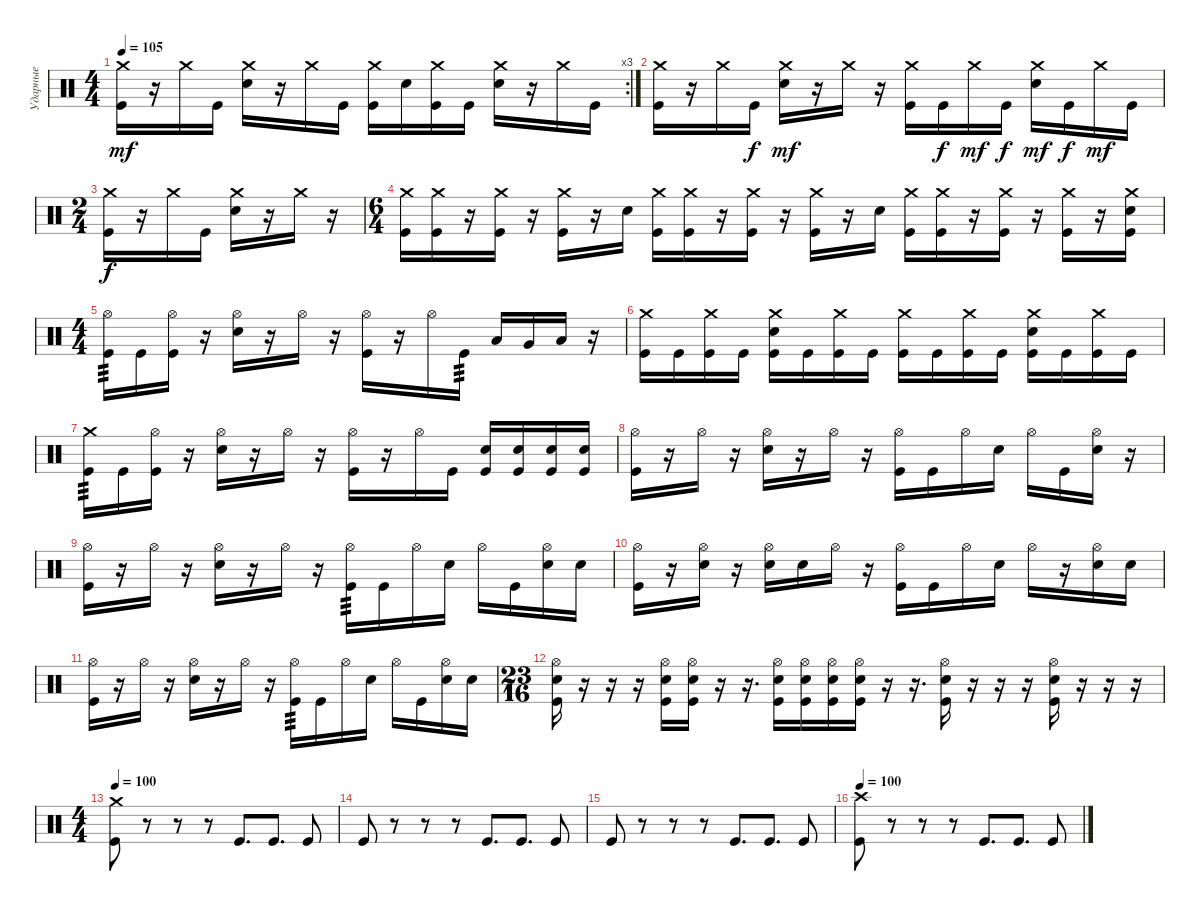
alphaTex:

\track ("Ударные" "Ударные") {instrument percussion}
\staff {score}
\articulation defaults
\rc 3
\ts (4 4)
\tempo 105
\clef neutral
\ks c
("Crash medium (hit)" "Kick (hit)").16{dy mf} r.16 "Crash medium (hit)".16 "Kick (hit)".16 ("Crash medium (hit)" "Electric Snare (hit)").16 r.16 "Crash medium (hit)".16 "Kick (hit)".16 ("Crash medium (hit)" "Kick (hit)").16 "Electric Snare (hit)".16 ("Crash medium (hit)" "Kick (hit)").16 "Kick (hit)".16 ("Crash medium (hit)" "Electric Snare (hit)").16 r.16 "Crash medium (hit)".16 "Kick (hit)".16 |
("Crash medium (hit)" "Kick (hit)").16 r.16 "Crash medium (hit)".16 "Kick (hit)".16{dy f} ("Crash medium (hit)" "Electric Snare (hit)").16{dy mf} r.16 "Crash medium (hit)".16 r.16 ("Crash medium (hit)" "Kick (hit)").16 "Kick (hit)".16{dy f} "Crash medium (hit)".16{dy mf} "Kick (hit)".16{dy f} ("Crash medium (hit)" "Electric Snare (hit)").16{dy mf} "Kick (hit)".16{dy f} "Crash medium (hit)".16{dy mf} "Kick (hit)".16 |
\ts (2 4)
("Crash medium (hit)" "Kick (hit)").16{dy f} r.16 "Crash medium (hit)".16 "Kick (hit)".16 ("Crash medium (hit)" "Electric Snare (hit)").16 r.16 "Crash medium (hit)".16 r.16 |
\ts (6 4)
("Crash medium (hit)" "Kick (hit)").16 ("Crash medium (hit)" "Kick (hit)").16 r.16 ("Crash medium (hit)" "Kick (hit)").16 r.16 ("Crash medium (hit)" "Kick (hit)").16 r.16 "Electric Snare (hit)".16 ("Crash medium (hit)" "Kick (hit)").16 ("Crash medium (hit)" "Kick (hit)").16 r.16 ("Crash medium (hit)" "Kick (hit)").16 r.16 ("Crash medium (hit)" "Kick (hit)").16 r.16 "Electric Snare (hit)".16 ("Crash medium (hit)" "Kick (hit)").16 ("Crash medium (hit)" "Kick (hit)").16 r.16 ("Crash medium (hit)" "Kick (hit)").16 r.16 ("Crash medium (hit)" "Kick (hit)").16 r.16 ("Crash medium (hit)" "Electric Snare (hit)" "Kick (hit)").16 |
\ts (4 4)
("Hi-Hat (open)" "Kick (hit)").16{tp 3} "Kick (hit)".16 ("Hi-Hat (open)" "Kick (hit)").16 r.16 ("Hi-Hat (open)" "Electric Snare (hit)").16 r.16 "Hi-Hat (open)".16 r.16 ("Hi-Hat (open)" "Kick (hit)").16 r.16 "Hi-Hat (open)".16 "Kick (hit)".16{tp 3} "Low Tom (hit)".16 "Very Low Tom (hit)".16 "Low Floor Tom (hit)".16 r.16 |
("Crash medium (hit)" "Kick (hit)").16 "Kick (hit)".16 ("Crash medium (hit)" "Kick (hit)").16 "Kick (hit)".16 ("Crash medium (hit)" "Electric Snare (hit)" "Kick (hit)").16 "Kick (hit)".16 ("Crash medium (hit)" "Kick (hit)").16 "Kick (hit)".16 ("Crash medium (hit)" "Kick (hit)").16 "Kick (hit)".16 ("Crash medium (hit)" "Kick (hit)").16 "Kick (hit)".16 ("Crash medium (hit)" "Electric Snare (hit)" "Kick (hit)").16 "Kick (hit)".16 ("Crash medium (hit)" "Kick (hit)").16 "Kick (hit)".16 |
("Crash medium (hit)" "Kick (hit)").16{tp 3} "Kick (hit)".16 ("Hi-Hat (open)" "Kick (hit)").16 r.16 ("Hi-Hat (open)" "Electric Snare (hit)").16 r.16 "Hi-Hat (open)".16 r.16 ("Hi-Hat (open)" "Kick (hit)").16 r.16 "Hi-Hat (open)".16 "Kick (hit)".16 ("Electric Snare (hit)" "Kick (hit)").16 ("Electric Snare (hit)" "Kick (hit)").16 ("Electric Snare (hit)" "Kick (hit)").16 ("Electric Snare (hit)" "Kick (hit)").16 |
("Hi-Hat (open)" "Kick (hit)").16 r.16 "Hi-Hat (open)".16 r.16 ("Hi-Hat (open)" "Electric Snare (hit)").16 r.16 "Hi-Hat (open)".16 r.16 ("Hi-Hat (open)" "Kick (hit)").16 "Kick (hit)".16 "Hi-Hat (open)".16 "Electric Snare (hit)".16 "Hi-Hat (open)".16 "Kick (hit)".16 ("Hi-Hat (open)" "Electric Snare (hit)").16 r.16 |
("Hi-Hat (open)" "Kick (hit)").16 r.16 "Hi-Hat (open)".16 r.16 ("Hi-Hat (open)" "Electric Snare (hit)").16 r.16 "Hi-Hat (open)".16 r.16 ("Hi-Hat (open)" "Kick (hit)").16{tp 3} "Kick (hit)".16 "Hi-Hat (open)".16 "Electric Snare (hit)".16 "Hi-Hat (open)".16 "Kick (hit)".16 ("Hi-Hat (open)" "Electric Snare (hit)").16 "Electric Snare (hit)".16 |
("Hi-Hat (open)" "Kick (hit)").16 r.16 ("Hi-Hat (open)" "Electric Snare (hit)").16 r.16 ("Hi-Hat (open)" "Electric Snare (hit)").16 "Electric Snare (hit)".16 "Hi-Hat (open)".16 r.16 ("Hi-Hat (open)" "Kick (hit)").16 "Kick (hit)".16 "Hi-Hat (open)".16 "Electric Snare (hit)".16 "Hi-Hat (open)".16 r.16 ("Hi-Hat (open)" "Electric Snare (hit)").16 "Electric Snare (hit)".16 |
("Hi-Hat (open)" "Kick (hit)").16 r.16 "Hi-Hat (open)".16 r.16 ("Hi-Hat (open)" "Electric Snare (hit)").16 r.16 "Hi-Hat (open)".16 r.16 ("Hi-Hat (open)" "Kick (hit)").16{tp 3} "Kick (hit)".16 "Hi-Hat (open)".16 "Electric Snare (hit)".16 "Hi-Hat (open)".16 "Kick (hit)".16 ("Hi-Hat (open)" "Electric Snare (hit)").16 "Electric Snare (hit)".16 |
\ts (23 16)
("Hi-Hat (open)" "Electric Snare (hit)" "Kick (hit)").16 r.16 r.16 r.16 ("Hi-Hat (open)" "Electric Snare (hit)" "Kick (hit)").16 ("Hi-Hat (open)" "Electric Snare (hit)" "Kick (hit)").16 r.16 r.16{d} ("Hi-Hat (open)" "Electric Snare (hit)" "Kick (hit)").16 ("Hi-Hat (open)" "Electric Snare (hit)" "Kick (hit)").16 ("Hi-Hat (open)" "Electric Snare (hit)" "Kick (hit)").16 ("Hi-Hat (open)" "Electric Snare (hit)" "Kick (hit)").16 r.16 r.16{d} ("Hi-Hat (open)" "Electric Snare (hit)" "Kick (hit)").16 r.16 r.16 r.16 ("Hi-Hat (open)" "Electric Snare (hit)" "Kick (hit)").16 r.16 r.16 r.16 |
\ts (4 4)
\tempo 100
("Crash medium (hit)" "Kick (hit)").8 r.8 r.8 r.8 "Kick (hit)".8{d} "Kick (hit)".8{d} "Kick (hit)".8 |
"Kick (hit)".8 r.8 r.8 r.8 "Kick (hit)".8{d} "Kick (hit)".8{d} "Kick (hit)".8 |
"Kick (hit)".8 r.8 r.8 r.8 "Kick (hit)".8{d} "Kick (hit)".8{d} "Kick (hit)".8 |
\tempo 100
("Crash high (hit)" "Kick (hit)").8 r.8 r.8 r.8 "Kick (hit)".8{d} "Kick (hit)".8{d} "Kick (hit)".8
